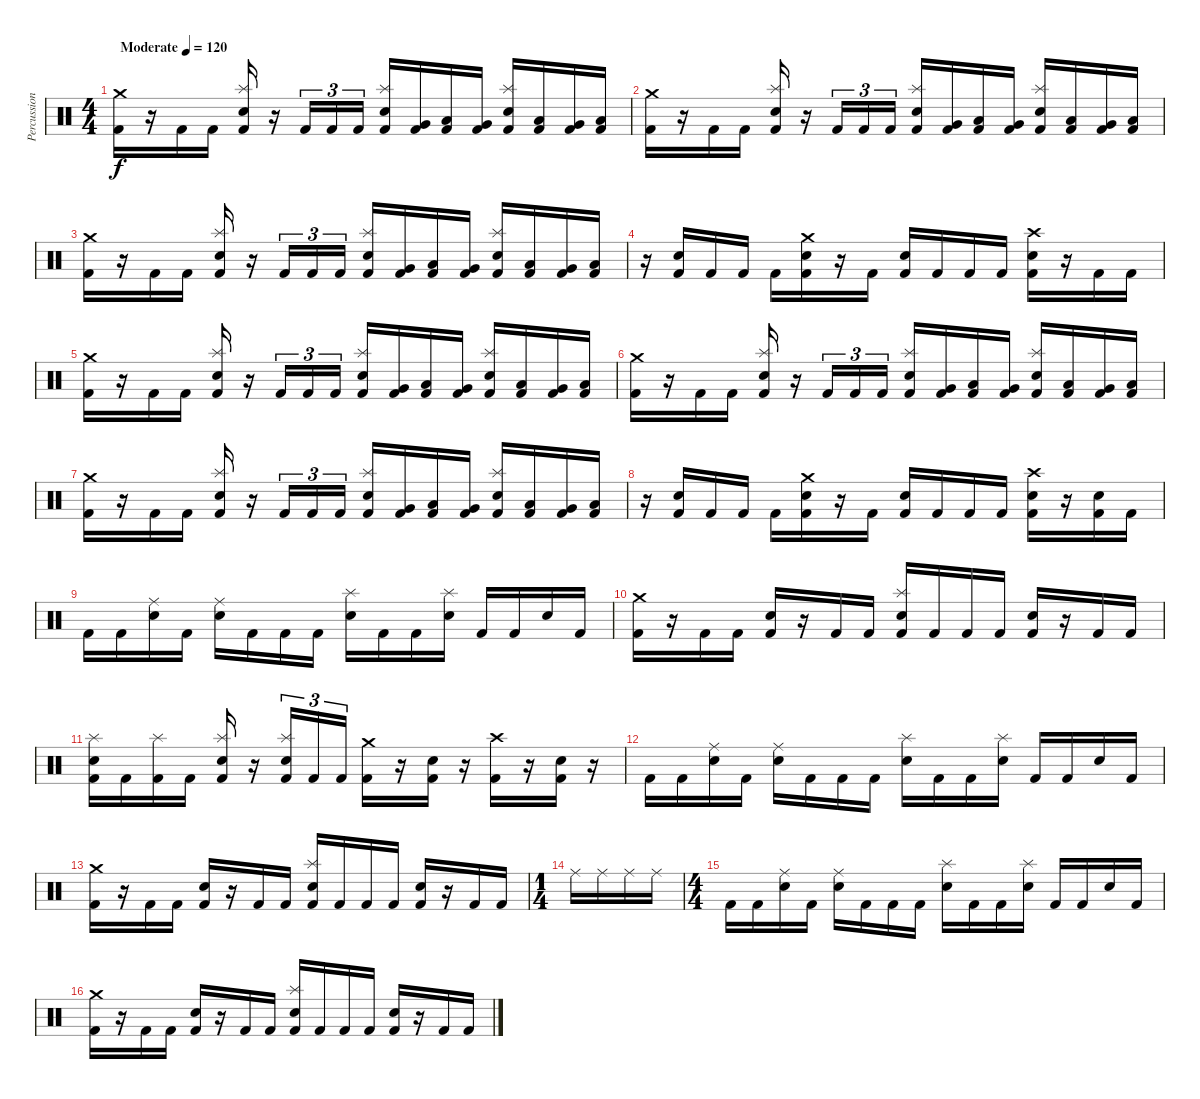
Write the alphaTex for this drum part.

\track ("Percussion" "Percussion") {instrument percussion}
\staff {score}
\articulation defaults
\ts (4 4)
\tempo (120 "Moderate")
\clef neutral
\ks c
("Crash medium (hit)" "Kick (hit) 2").16{dy f} r.16 "Kick (hit) 2".16 "Kick (hit) 2".16 ("Splash (hit)" "Electric Snare (hit)" "Kick (hit) 2").16 r.16 "Kick (hit) 2".16{tu (3 2)} "Kick (hit) 2".16{tu (3 2)} "Kick (hit) 2".16{tu (3 2)} ("Splash (hit)" "Electric Snare (hit)" "Kick (hit) 2").16 ("Very Low Tom (hit)" "Kick (hit) 2").16 ("Low Tom (hit)" "Kick (hit) 2").16 ("Very Low Tom (hit)" "Kick (hit) 2").16 ("Splash (hit)" "Electric Snare (hit)" "Kick (hit) 2").16 ("Low Tom (hit)" "Kick (hit) 2").16 ("Very Low Tom (hit)" "Kick (hit) 2").16 ("Low Floor Tom (hit)" "Kick (hit) 2").16 |
("Crash medium (hit)" "Kick (hit) 2").16 r.16 "Kick (hit) 2".16 "Kick (hit) 2".16 ("Splash (hit)" "Electric Snare (hit)" "Kick (hit) 2").16 r.16 "Kick (hit) 2".16{tu (3 2)} "Kick (hit) 2".16{tu (3 2)} "Kick (hit) 2".16{tu (3 2)} ("Splash (hit)" "Electric Snare (hit)" "Kick (hit) 2").16 ("Very Low Tom (hit)" "Kick (hit) 2").16 ("Low Tom (hit)" "Kick (hit) 2").16 ("Very Low Tom (hit)" "Kick (hit) 2").16 ("Splash (hit)" "Electric Snare (hit)" "Kick (hit) 2").16 ("Low Tom (hit)" "Kick (hit) 2").16 ("Very Low Tom (hit)" "Kick (hit) 2").16 ("Low Floor Tom (hit)" "Kick (hit) 2").16 |
("Crash medium (hit)" "Kick (hit) 2").16 r.16 "Kick (hit) 2".16 "Kick (hit) 2".16 ("Splash (hit)" "Electric Snare (hit)" "Kick (hit) 2").16 r.16 "Kick (hit) 2".16{tu (3 2)} "Kick (hit) 2".16{tu (3 2)} "Kick (hit) 2".16{tu (3 2)} ("Splash (hit)" "Electric Snare (hit)" "Kick (hit) 2").16 ("Very Low Tom (hit)" "Kick (hit) 2").16 ("Low Tom (hit)" "Kick (hit) 2").16 ("Very Low Tom (hit)" "Kick (hit) 2").16 ("Splash (hit)" "Electric Snare (hit)" "Kick (hit) 2").16 ("Low Tom (hit)" "Kick (hit) 2").16 ("Very Low Tom (hit)" "Kick (hit) 2").16 ("Low Floor Tom (hit)" "Kick (hit) 2").16 |
r.16 ("Electric Snare (hit)" "Kick (hit) 2").16 "Kick (hit) 2".16 "Kick (hit) 2".16 "Kick (hit) 2".16 ("Crash medium (hit)" "Electric Snare (hit)" "Kick (hit) 2").16 r.16 "Kick (hit) 2".16 ("Electric Snare (hit)" "Kick (hit) 2").16 "Kick (hit) 2".16 "Kick (hit) 2".16 "Kick (hit) 2".16 ("Crash high (hit)" "Electric Snare (hit)" "Kick (hit) 2").16 r.16 "Kick (hit) 2".16 "Kick (hit) 2".16 |
("Crash medium (hit)" "Kick (hit) 2").16 r.16 "Kick (hit) 2".16 "Kick (hit) 2".16 ("Splash (hit)" "Electric Snare (hit)" "Kick (hit) 2").16 r.16 "Kick (hit) 2".16{tu (3 2)} "Kick (hit) 2".16{tu (3 2)} "Kick (hit) 2".16{tu (3 2)} ("Splash (hit)" "Electric Snare (hit)" "Kick (hit) 2").16 ("Very Low Tom (hit)" "Kick (hit) 2").16 ("Low Tom (hit)" "Kick (hit) 2").16 ("Very Low Tom (hit)" "Kick (hit) 2").16 ("Splash (hit)" "Electric Snare (hit)" "Kick (hit) 2").16 ("Low Tom (hit)" "Kick (hit) 2").16 ("Very Low Tom (hit)" "Kick (hit) 2").16 ("Low Floor Tom (hit)" "Kick (hit) 2").16 |
("Crash medium (hit)" "Kick (hit) 2").16 r.16 "Kick (hit) 2".16 "Kick (hit) 2".16 ("Splash (hit)" "Electric Snare (hit)" "Kick (hit) 2").16 r.16 "Kick (hit) 2".16{tu (3 2)} "Kick (hit) 2".16{tu (3 2)} "Kick (hit) 2".16{tu (3 2)} ("Splash (hit)" "Electric Snare (hit)" "Kick (hit) 2").16 ("Very Low Tom (hit)" "Kick (hit) 2").16 ("Low Tom (hit)" "Kick (hit) 2").16 ("Very Low Tom (hit)" "Kick (hit) 2").16 ("Splash (hit)" "Electric Snare (hit)" "Kick (hit) 2").16 ("Low Tom (hit)" "Kick (hit) 2").16 ("Very Low Tom (hit)" "Kick (hit) 2").16 ("Low Floor Tom (hit)" "Kick (hit) 2").16 |
("Crash medium (hit)" "Kick (hit) 2").16 r.16 "Kick (hit) 2".16 "Kick (hit) 2".16 ("Splash (hit)" "Electric Snare (hit)" "Kick (hit) 2").16 r.16 "Kick (hit) 2".16{tu (3 2)} "Kick (hit) 2".16{tu (3 2)} "Kick (hit) 2".16{tu (3 2)} ("Splash (hit)" "Electric Snare (hit)" "Kick (hit) 2").16 ("Very Low Tom (hit)" "Kick (hit) 2").16 ("Low Tom (hit)" "Kick (hit) 2").16 ("Very Low Tom (hit)" "Kick (hit) 2").16 ("Splash (hit)" "Electric Snare (hit)" "Kick (hit) 2").16 ("Low Tom (hit)" "Kick (hit) 2").16 ("Very Low Tom (hit)" "Kick (hit) 2").16 ("Low Floor Tom (hit)" "Kick (hit) 2").16 |
r.16 ("Electric Snare (hit)" "Kick (hit) 2").16 "Kick (hit) 2".16 "Kick (hit) 2".16 "Kick (hit) 2".16 ("Crash medium (hit)" "Electric Snare (hit)" "Kick (hit) 2").16 r.16 "Kick (hit) 2".16 ("Electric Snare (hit)" "Kick (hit) 2").16 "Kick (hit) 2".16 "Kick (hit) 2".16 "Kick (hit) 2".16 ("Crash high (hit)" "Electric Snare (hit)" "Kick (hit) 2").16 r.16 ("Electric Snare (hit)" "Kick (hit) 2").16 "Kick (hit) 2".16 |
"Kick (hit) 2".16 "Kick (hit) 2".16 ("Ride (middle)" "Electric Snare (hit)").16 "Kick (hit) 2".16 ("Ride (middle)" "Electric Snare (hit)").16 "Kick (hit) 2".16 "Kick (hit) 2".16 "Kick (hit) 2".16 ("Splash (hit)" "Electric Snare (hit)").16 "Kick (hit) 2".16 "Kick (hit) 2".16 ("Splash (hit)" "Electric Snare (hit)").16 "Kick (hit) 2".16 "Kick (hit) 2".16 "Electric Snare (hit)".16 "Kick (hit) 2".16 |
("Crash medium (hit)" "Kick (hit) 2").16 r.16 "Kick (hit) 2".16 "Kick (hit) 2".16 ("Electric Snare (hit)" "Kick (hit) 2").16 r.16 "Kick (hit) 2".16 "Kick (hit) 2".16 ("Splash (hit)" "Electric Snare (hit)" "Kick (hit) 2").16 "Kick (hit) 2".16 "Kick (hit) 2".16 "Kick (hit) 2".16 ("Electric Snare (hit)" "Kick (hit) 2").16 r.16 "Kick (hit) 2".16 "Kick (hit) 2".16 |
("Splash (hit)" "Electric Snare (hit)" "Kick (hit) 2").16 "Kick (hit) 2".16 ("Splash (hit)" "Kick (hit) 2").16 "Kick (hit) 2".16 ("Splash (hit)" "Electric Snare (hit)" "Kick (hit) 2").16 r.16 ("Splash (hit)" "Electric Snare (hit)" "Kick (hit) 2").16{tu (3 2)} "Kick (hit) 2".16{tu (3 2)} "Kick (hit) 2".16{tu (3 2)} ("Crash medium (hit)" "Kick (hit) 2").16 r.16 ("Electric Snare (hit)" "Kick (hit) 2").16 r.16 ("Crash high (hit)" "Kick (hit) 2").16 r.16 ("Electric Snare (hit)" "Kick (hit) 2").16 r.16 |
"Kick (hit) 2".16 "Kick (hit) 2".16 ("Ride (middle)" "Electric Snare (hit)").16 "Kick (hit) 2".16 ("Ride (middle)" "Electric Snare (hit)").16 "Kick (hit) 2".16 "Kick (hit) 2".16 "Kick (hit) 2".16 ("Splash (hit)" "Electric Snare (hit)").16 "Kick (hit) 2".16 "Kick (hit) 2".16 ("Splash (hit)" "Electric Snare (hit)").16 "Kick (hit) 2".16 "Kick (hit) 2".16 "Electric Snare (hit)".16 "Kick (hit) 2".16 |
("Crash medium (hit)" "Kick (hit) 2").16 r.16 "Kick (hit) 2".16 "Kick (hit) 2".16 ("Electric Snare (hit)" "Kick (hit) 2").16 r.16 "Kick (hit) 2".16 "Kick (hit) 2".16 ("Splash (hit)" "Electric Snare (hit)" "Kick (hit) 2").16 "Kick (hit) 2".16 "Kick (hit) 2".16 "Kick (hit) 2".16 ("Electric Snare (hit)" "Kick (hit) 2").16 r.16 "Kick (hit) 2".16 "Kick (hit) 2".16 |
\ts (1 4)
"Ride (middle)".16 "Ride (middle)".16 "Ride (middle)".16 "Ride (middle)".16 |
\ts (4 4)
"Kick (hit) 2".16 "Kick (hit) 2".16 ("Ride (middle)" "Electric Snare (hit)").16 "Kick (hit) 2".16 ("Ride (middle)" "Electric Snare (hit)").16 "Kick (hit) 2".16 "Kick (hit) 2".16 "Kick (hit) 2".16 ("Splash (hit)" "Electric Snare (hit)").16 "Kick (hit) 2".16 "Kick (hit) 2".16 ("Splash (hit)" "Electric Snare (hit)").16 "Kick (hit) 2".16 "Kick (hit) 2".16 "Electric Snare (hit)".16 "Kick (hit) 2".16 |
("Crash medium (hit)" "Kick (hit) 2").16 r.16 "Kick (hit) 2".16 "Kick (hit) 2".16 ("Electric Snare (hit)" "Kick (hit) 2").16 r.16 "Kick (hit) 2".16 "Kick (hit) 2".16 ("Splash (hit)" "Electric Snare (hit)" "Kick (hit) 2").16 "Kick (hit) 2".16 "Kick (hit) 2".16 "Kick (hit) 2".16 ("Electric Snare (hit)" "Kick (hit) 2").16 r.16 "Kick (hit) 2".16 "Kick (hit) 2".16
